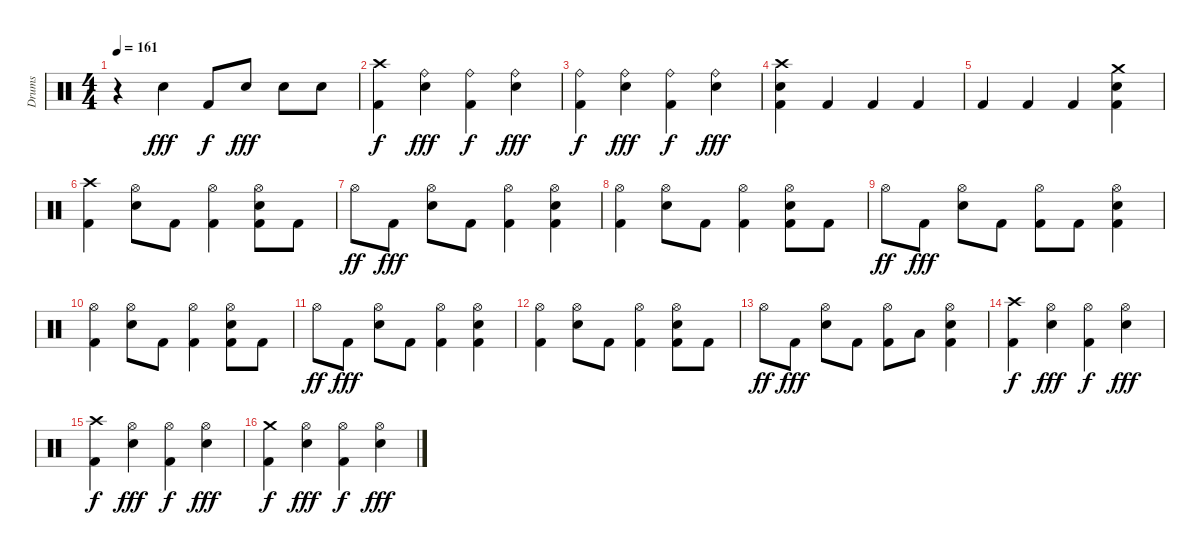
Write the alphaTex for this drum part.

\track ("Drums" "Drums") {instrument percussion}
\staff {score}
\articulation defaults
\ts (4 4)
\tempo 161
\clef neutral
\ks c
r.4{dy fff} "Electric Snare (hit)".4 "Kick (hit) 2".8{dy f} "Electric Snare (hit)".8{dy fff} "Electric Snare (hit)".8 "Electric Snare (hit)".8 |
("Crash high (hit)" "Kick (hit) 2").4{dy f} ("Ride (bell)" "Electric Snare (hit)").4{dy fff} ("Ride (bell)" "Kick (hit) 2").4{dy f} ("Ride (bell)" "Electric Snare (hit)").4{dy fff} |
("Ride (bell)" "Kick (hit) 2").4{dy f} ("Ride (bell)" "Electric Snare (hit)").4{dy fff} ("Ride (bell)" "Kick (hit) 2").4{dy f} ("Ride (bell)" "Electric Snare (hit)").4{dy fff} |
("Crash high (hit)" "Electric Snare (hit)" "Kick (hit) 2").4 "Kick (hit) 2".4 "Kick (hit) 2".4 "Kick (hit) 2".4 |
"Kick (hit) 2".4 "Kick (hit) 2".4 "Kick (hit) 2".4 ("Crash medium (hit)" "Electric Snare (hit)" "Kick (hit) 2").4 |
("Crash high (hit)" "Kick (hit) 2").4 ("Hi-Hat (open)" "Electric Snare (hit)").8 "Kick (hit) 2".8 ("Hi-Hat (open)" "Kick (hit) 2").4 ("Hi-Hat (open)" "Electric Snare (hit)" "Kick (hit) 2").8 "Kick (hit) 2".8 |
"Hi-Hat (open)".8{dy ff} "Kick (hit) 2".8{dy fff} ("Hi-Hat (open)" "Electric Snare (hit)").8 "Kick (hit) 2".8 ("Hi-Hat (open)" "Kick (hit) 2").4 ("Hi-Hat (open)" "Electric Snare (hit)" "Kick (hit) 2").4 |
("Hi-Hat (open)" "Kick (hit) 2").4 ("Hi-Hat (open)" "Electric Snare (hit)").8 "Kick (hit) 2".8 ("Hi-Hat (open)" "Kick (hit) 2").4 ("Hi-Hat (open)" "Electric Snare (hit)" "Kick (hit) 2").8 "Kick (hit) 2".8 |
"Hi-Hat (open)".8{dy ff} "Kick (hit) 2".8{dy fff} ("Hi-Hat (open)" "Electric Snare (hit)").8 "Kick (hit) 2".8 ("Hi-Hat (open)" "Kick (hit) 2").8 "Kick (hit) 2".8 ("Hi-Hat (open)" "Electric Snare (hit)" "Kick (hit) 2").4 |
("Hi-Hat (open)" "Kick (hit) 2").4 ("Hi-Hat (open)" "Electric Snare (hit)").8 "Kick (hit) 2".8 ("Hi-Hat (open)" "Kick (hit) 2").4 ("Hi-Hat (open)" "Electric Snare (hit)" "Kick (hit) 2").8 "Kick (hit) 2".8 |
"Hi-Hat (open)".8{dy ff} "Kick (hit) 2".8{dy fff} ("Hi-Hat (open)" "Electric Snare (hit)").8 "Kick (hit) 2".8 ("Hi-Hat (open)" "Kick (hit) 2").4 ("Hi-Hat (open)" "Electric Snare (hit)" "Kick (hit) 2").4 |
("Hi-Hat (open)" "Kick (hit) 2").4 ("Hi-Hat (open)" "Electric Snare (hit)").8 "Kick (hit) 2".8 ("Hi-Hat (open)" "Kick (hit) 2").4 ("Hi-Hat (open)" "Electric Snare (hit)" "Kick (hit) 2").8 "Kick (hit) 2".8 |
"Hi-Hat (open)".8{dy ff} "Kick (hit) 2".8{dy fff} ("Hi-Hat (open)" "Electric Snare (hit)").8 "Kick (hit) 2".8 ("Hi-Hat (open)" "Kick (hit) 2").8 "Low Tom (hit)".8 ("Hi-Hat (open)" "Electric Snare (hit)" "Kick (hit) 2").4 |
("Crash high (hit)" "Kick (hit) 2").4{dy f} ("Hi-Hat (open)" "Electric Snare (hit)").4{dy fff} ("Hi-Hat (open)" "Kick (hit) 2").4{dy f} ("Hi-Hat (open)" "Electric Snare (hit)").4{dy fff} |
("Crash high (hit)" "Kick (hit) 2").4{dy f} ("Hi-Hat (open)" "Electric Snare (hit)").4{dy fff} ("Hi-Hat (open)" "Kick (hit) 2").4{dy f} ("Hi-Hat (open)" "Electric Snare (hit)").4{dy fff} |
("Crash medium (hit)" "Kick (hit) 2").4{dy f} ("Hi-Hat (open)" "Electric Snare (hit)").4{dy fff} ("Hi-Hat (open)" "Kick (hit) 2").4{dy f} ("Hi-Hat (open)" "Electric Snare (hit)").4{dy fff}
